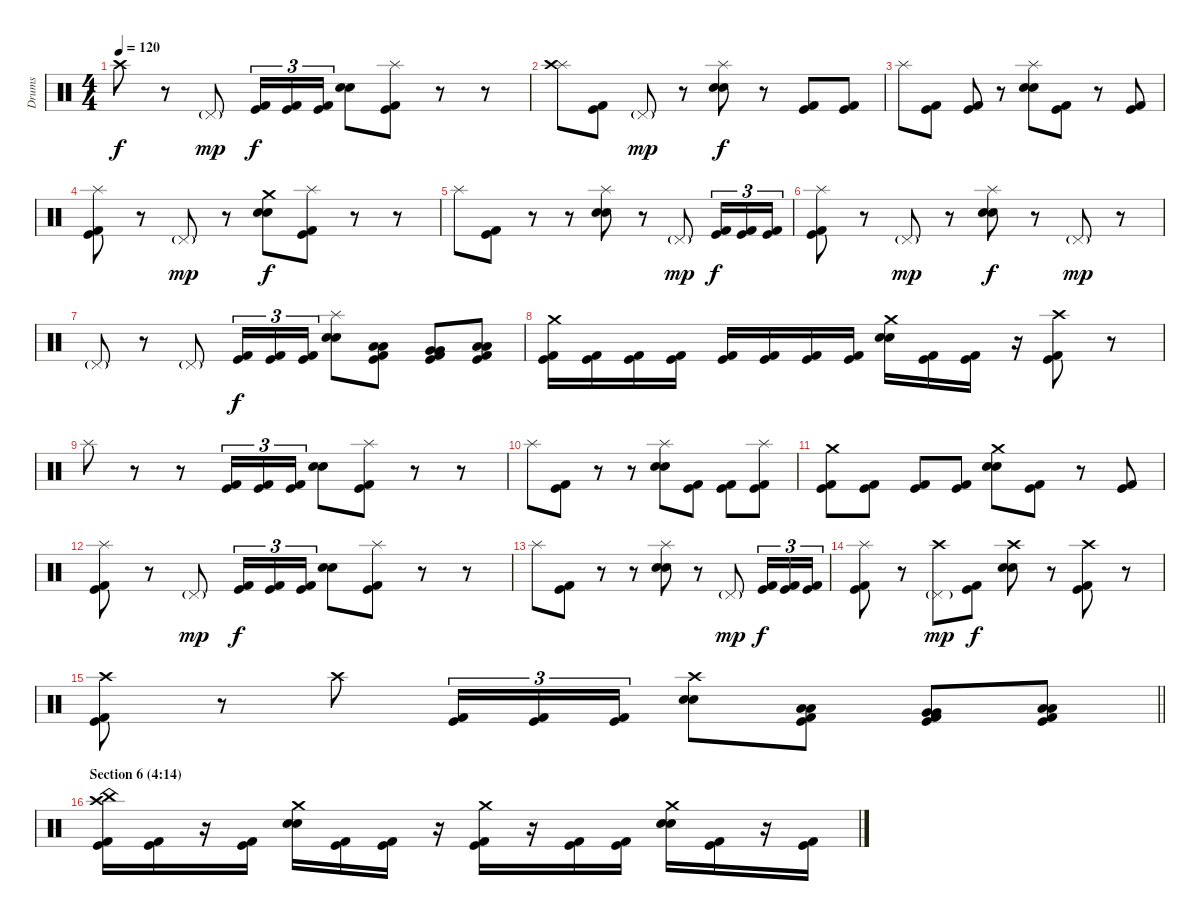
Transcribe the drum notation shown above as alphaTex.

\track ("Drums" "Drums") {instrument percussion}
\staff {score}
\articulation defaults
\ts (4 4)
\tempo 120
\clef neutral
\ks c "Crash high (hit)".8{dy f}
r.8 "Pedal Hi-Hat (hit)"{g}.8{dy mp} ("Kick (hit) 2" "Kick (hit)").16{tu (3 2) dy f} ("Kick (hit) 2" "Kick (hit)").16{tu (3 2)} ("Kick (hit) 2" "Kick (hit)").16{tu (3 2)} ("Electric Snare (hit)" "Electric Snare (hit)").8 ("Splash (hit)" "Kick (hit) 2" "Kick (hit)").8 r.8 r.8 |
("Splash (hit)" "Crash high (hit)").8 ("Kick (hit) 2" "Kick (hit)").8 "Pedal Hi-Hat (hit)"{g}.8{dy mp} r.8 ("Splash (hit)" "Electric Snare (hit)" "Electric Snare (hit)").8{dy f} r.8 ("Kick (hit) 2" "Kick (hit)").8 ("Kick (hit) 2" "Kick (hit)").8 |
"Splash (hit)".8 ("Kick (hit) 2" "Kick (hit)").8 ("Kick (hit) 2" "Kick (hit)").8 r.8 ("Splash (hit)" "Electric Snare (hit)" "Electric Snare (hit)").8 ("Kick (hit) 2" "Kick (hit)").8 r.8 ("Kick (hit) 2" "Kick (hit)").8 |
("Splash (hit)" "Kick (hit) 2" "Kick (hit)").8 r.8 "Pedal Hi-Hat (hit)"{g}.8{dy mp} r.8 ("Crash medium (hit)" "Electric Snare (hit)" "Electric Snare (hit)").8{dy f} ("Splash (hit)" "Kick (hit) 2" "Kick (hit)").8 r.8 r.8 |
"Splash (hit)".8 ("Kick (hit) 2" "Kick (hit)").8 r.8 r.8 ("Splash (hit)" "Electric Snare (hit)" "Electric Snare (hit)").8 r.8 "Pedal Hi-Hat (hit)"{g}.8{dy mp} ("Kick (hit) 2" "Kick (hit)").16{tu (3 2) dy f} ("Kick (hit) 2" "Kick (hit)").16{tu (3 2)} ("Kick (hit) 2" "Kick (hit)").16{tu (3 2)} |
("Splash (hit)" "Kick (hit) 2" "Kick (hit)").8 r.8 "Pedal Hi-Hat (hit)"{g}.8{dy mp} r.8 ("Splash (hit)" "Electric Snare (hit)" "Electric Snare (hit)").8{dy f} r.8 "Pedal Hi-Hat (hit)"{g}.8{dy mp} r.8 |
"Pedal Hi-Hat (hit)"{g}.8 r.8 "Pedal Hi-Hat (hit)"{g}.8 ("Kick (hit) 2" "Kick (hit)").16{tu (3 2) dy f} ("Kick (hit) 2" "Kick (hit)").16{tu (3 2)} ("Kick (hit) 2" "Kick (hit)").16{tu (3 2)} ("Splash (hit)" "Electric Snare (hit)" "Electric Snare (hit)").8 ("Low Tom (hit)" "Low Tom (hit)" "Kick (hit) 2" "Kick (hit)").8 ("Very Low Tom (hit)" "Very Low Tom (hit)" "Kick (hit) 2" "Kick (hit)").8 ("Low Floor Tom (hit)" "Low Floor Tom (hit)" "Kick (hit) 2" "Kick (hit)").8 |
("Crash medium (hit)" "Kick (hit) 2" "Kick (hit)").16 ("Kick (hit) 2" "Kick (hit)").16 ("Kick (hit) 2" "Kick (hit)").16 ("Kick (hit) 2" "Kick (hit)").16 ("Kick (hit) 2" "Kick (hit)").16 ("Kick (hit) 2" "Kick (hit)").16 ("Kick (hit) 2" "Kick (hit)").16 ("Kick (hit) 2" "Kick (hit)").16 ("Crash medium (hit)" "Electric Snare (hit)" "Electric Snare (hit)").16 ("Kick (hit) 2" "Kick (hit)").16 ("Kick (hit) 2" "Kick (hit)").16 r.16 ("Crash high (hit)" "Kick (hit) 2" "Kick (hit)").8 r.8 |
"Splash (hit)".8 r.8 r.8 ("Kick (hit) 2" "Kick (hit)").16{tu (3 2)} ("Kick (hit) 2" "Kick (hit)").16{tu (3 2)} ("Kick (hit) 2" "Kick (hit)").16{tu (3 2)} ("Electric Snare (hit)" "Electric Snare (hit)").8 ("Splash (hit)" "Kick (hit) 2" "Kick (hit)").8 r.8 r.8 |
"Splash (hit)".8 ("Kick (hit) 2" "Kick (hit)").8 r.8 r.8 ("Splash (hit)" "Electric Snare (hit)" "Electric Snare (hit)").8 ("Kick (hit) 2" "Kick (hit)").8 ("Kick (hit) 2" "Kick (hit)").8 ("Splash (hit)" "Kick (hit) 2" "Kick (hit)").8 |
("Crash medium (hit)" "Kick (hit) 2" "Kick (hit)").8 ("Kick (hit) 2" "Kick (hit)").8 ("Kick (hit) 2" "Kick (hit)").8 ("Kick (hit) 2" "Kick (hit)").8 ("Crash medium (hit)" "Electric Snare (hit)" "Electric Snare (hit)").8 ("Kick (hit) 2" "Kick (hit)").8 r.8 ("Kick (hit) 2" "Kick (hit)").8 |
("Splash (hit)" "Kick (hit) 2" "Kick (hit)").8 r.8 "Pedal Hi-Hat (hit)"{g}.8{dy mp} ("Kick (hit) 2" "Kick (hit)").16{tu (3 2) dy f} ("Kick (hit) 2" "Kick (hit)").16{tu (3 2)} ("Kick (hit) 2" "Kick (hit)").16{tu (3 2)} ("Electric Snare (hit)" "Electric Snare (hit)").8 ("Splash (hit)" "Kick (hit) 2" "Kick (hit)").8 r.8 r.8 |
"Splash (hit)".8 ("Kick (hit) 2" "Kick (hit)").8 r.8 r.8 ("Splash (hit)" "Electric Snare (hit)" "Electric Snare (hit)").8 r.8 "Pedal Hi-Hat (hit)"{g}.8{dy mp} ("Kick (hit) 2" "Kick (hit)").16{tu (3 2) dy f} ("Kick (hit) 2" "Kick (hit)").16{tu (3 2)} ("Kick (hit) 2" "Kick (hit)").16{tu (3 2)} |
("Splash (hit)" "Kick (hit) 2" "Kick (hit)").8 r.8 ("Crash high (hit)" "Pedal Hi-Hat (hit)"{g}).8{dy mp} ("Kick (hit) 2" "Kick (hit)").8{dy f} ("Crash high (hit)" "Electric Snare (hit)" "Electric Snare (hit)").8 r.8 ("Crash high (hit)" "Kick (hit) 2" "Kick (hit)").8 r.8 |
\barLineRight lightlight
("Crash high (hit)" "Kick (hit) 2" "Kick (hit)").8 r.8 "Crash high (hit)".8 ("Kick (hit) 2" "Kick (hit)").16{tu (3 2)} ("Kick (hit) 2" "Kick (hit)").16{tu (3 2)} ("Kick (hit) 2" "Kick (hit)").16{tu (3 2)} ("Crash high (hit)" "Electric Snare (hit)" "Electric Snare (hit)").8 ("Low Tom (hit)" "Low Tom (hit)" "Kick (hit) 2" "Kick (hit)").8 ("Very Low Tom (hit)" "Very Low Tom (hit)" "Kick (hit) 2" "Kick (hit)").8 ("Low Floor Tom (hit)" "Low Floor Tom (hit)" "Kick (hit) 2" "Kick (hit)").8 |
\section ("" "Section 6 (4:14)")
("China (hit)" "Crash high (hit)" "Kick (hit) 2" "Kick (hit)").16 ("Kick (hit) 2" "Kick (hit)").16 r.16 ("Kick (hit) 2" "Kick (hit)").16 ("Crash medium (hit)" "Electric Snare (hit)" "Electric Snare (hit)").16 ("Kick (hit) 2" "Kick (hit)").16 ("Kick (hit) 2" "Kick (hit)").16 r.16 ("Crash medium (hit)" "Kick (hit) 2" "Kick (hit)").16 r.16 ("Kick (hit) 2" "Kick (hit)").16 ("Kick (hit) 2" "Kick (hit)").16 ("Crash medium (hit)" "Electric Snare (hit)" "Electric Snare (hit)").16 ("Kick (hit) 2" "Kick (hit)").16 r.16 ("Kick (hit) 2" "Kick (hit)").16
